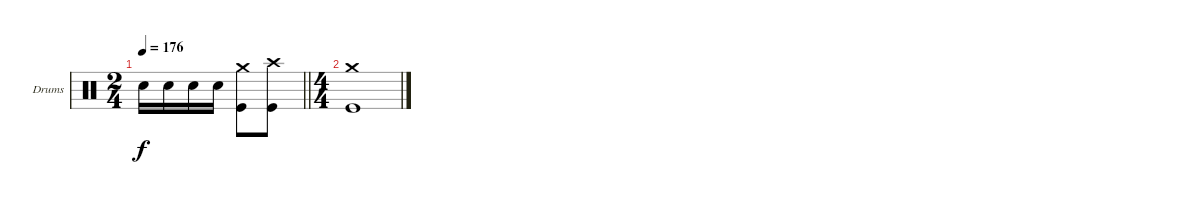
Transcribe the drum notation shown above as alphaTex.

\bracketExtendMode groupsimilarinstruments
\firstSystemTrackNameOrientation horizontal
\otherSystemsTrackNameOrientation horizontal
\track ("Drumkit" "Drums") {instrument percussion}
\staff {score}
\articulation defaults
\ts (2 4)
\beaming (8 2 2)
\tempo 176
\clef neutral
\barLineRight lightlight
\ks c "Snare (hit) 2".16{dy f} "Snare (hit) 2".16 "Snare (hit) 2".16 "Snare (hit) 2".16
("Crash medium (hit)" "Kick (hit)").8 ("Crash high (hit)" "Kick (hit)").8 |
\ts (4 4)
\beaming (8 2 2 2 2)
("Crash medium (hit)" "Kick (hit)").1
